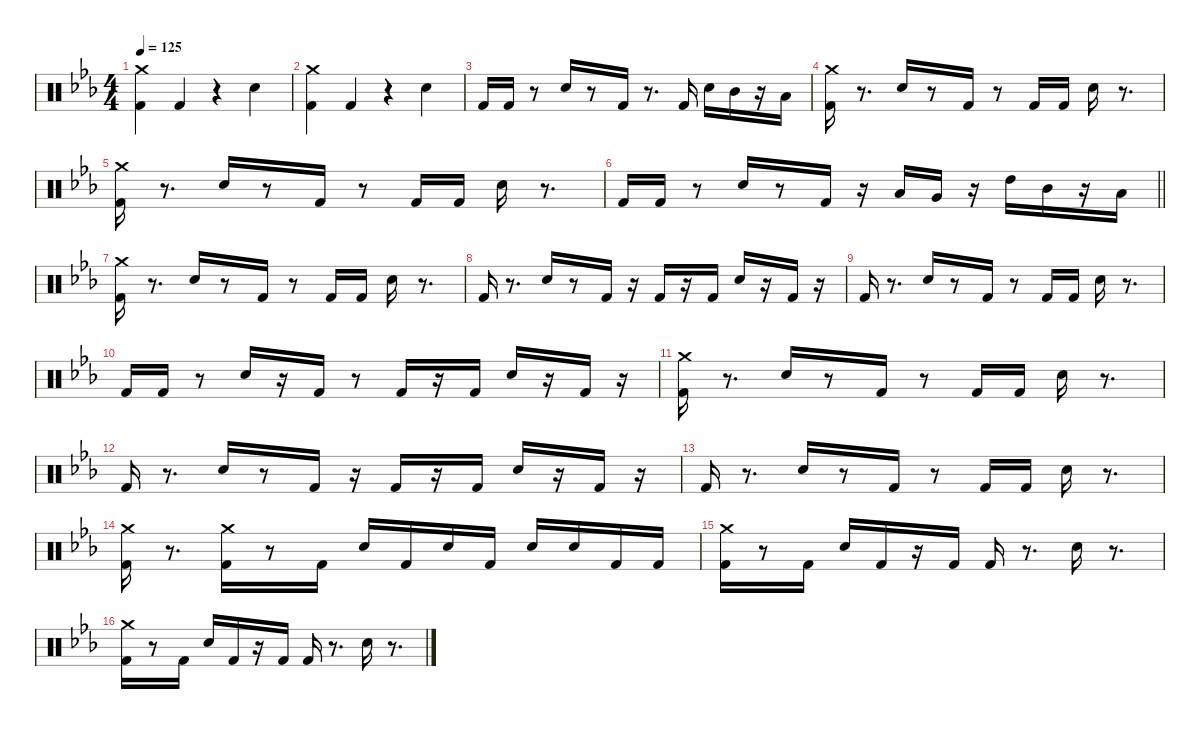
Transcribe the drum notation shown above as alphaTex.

\defaultSystemsLayout 4
\hideDynamics
\bracketExtendMode nobrackets
\singleTrackTrackNamePolicy hidden
\multiTrackTrackNamePolicy hidden
\firstSystemTrackNameMode fullname
\firstSystemTrackNameOrientation horizontal
\otherSystemsTrackNameOrientation horizontal
\track ("Batterie" "drm.") {defaultSystemsLayout 4 instrument percussion}
\staff {score}
\articulation defaults
\ts (4 4)
\beaming (8 2 2 2 2)
\tempo 125
\clef neutral
\ks eb
("Crash medium (hit)"{acc forcenatural} "Kick (hit) 2"{acc forcenatural}).4{dy f beam Down} "Kick (hit) 2"{acc forcenatural}.4{beam Up} r.4{beam Up} "Snare (hit) 2"{acc forcenatural}.4{beam Down} |
("Crash medium (hit)"{acc forcenatural} "Kick (hit) 2"{acc forcenatural}).4{beam Down} "Kick (hit) 2"{acc forcenatural}.4{beam Up} r.4{beam Up} "Snare (hit) 2"{acc forcenatural}.4{beam Down} |
"Kick (hit) 2"{acc forcenatural}.16{beam Up} "Kick (hit) 2"{acc forcenatural}.16{beam Up} r.8{beam Up} "Snare (hit) 2"{acc forcenatural}.16{beam Up} r.8{beam Up} "Kick (hit) 2"{acc forcenatural}.16{beam Up} r.8{d beam Up} "Kick (hit) 2"{acc forcenatural}.16{beam Up} "Snare (hit) 2"{acc forcenatural}.16{beam Down} "Mid Tom (hit)"{acc forcenatural}.16{beam Down} r.16{beam Down} "Low Tom (hit)"{acc forcenatural}.16{beam Down} |
("Crash medium (hit)"{acc forcenatural} "Kick (hit) 2"{acc forcenatural}).16{beam Down} r.8{d beam Down} "Snare (hit) 2"{acc forcenatural}.16{beam Up} r.8{beam Up} "Kick (hit) 2"{acc forcenatural}.16{beam Up} r.8{beam Up} "Kick (hit) 2"{acc forcenatural}.16{beam Up} "Kick (hit) 2"{acc forcenatural}.16{beam Up} "Snare (hit) 2"{acc forcenatural}.16{beam Down} r.8{d beam Down} |
("Crash medium (hit)"{acc forcenatural} "Kick (hit) 2"{acc forcenatural}).16{beam Down} r.8{d beam Down} "Snare (hit) 2"{acc forcenatural}.16{beam Up} r.8{beam Up} "Kick (hit) 2"{acc forcenatural}.16{beam Up} r.8{beam Up} "Kick (hit) 2"{acc forcenatural}.16{beam Up} "Kick (hit) 2"{acc forcenatural}.16{beam Up} "Snare (hit) 2"{acc forcenatural}.16{beam Down} r.8{d beam Down} |
\barLineRight lightlight "Kick (hit) 2"{acc forcenatural}.16{beam Up} "Kick (hit) 2"{acc forcenatural}.16{beam Up}
r.8{beam Up} "Snare (hit) 2"{acc forcenatural}.16{beam Up} r.8{beam Up} "Kick (hit) 2"{acc forcenatural}.16{beam Up} r.16{beam Up} "Low Tom (hit)"{acc forcenatural}.16{beam Up} "Very Low Tom (hit)"{acc forcenatural}.16{beam Up} r.16{beam Up} "High Tom (hit)"{acc forcenatural}.16{beam Down} "Mid Tom (hit)"{acc forcenatural}.16{beam Down} r.16{beam Down} "Low Tom (hit)"{acc forcenatural}.16{beam Down} |
("Crash medium (hit)"{acc forcenatural} "Kick (hit) 2"{acc forcenatural}).16{beam Down} r.8{d beam Down} "Snare (hit) 2"{acc forcenatural}.16{beam Up} r.8{beam Up} "Kick (hit) 2"{acc forcenatural}.16{beam Up} r.8{beam Up} "Kick (hit) 2"{acc forcenatural}.16{beam Up} "Kick (hit) 2"{acc forcenatural}.16{beam Up} "Snare (hit) 2"{acc forcenatural}.16{beam Down} r.8{d beam Down} |
"Kick (hit) 2"{acc forcenatural}.16{beam Up} r.8{d beam Up} "Snare (hit) 2"{acc forcenatural}.16{beam Up} r.8{beam Up} "Kick (hit) 2"{acc forcenatural}.16{beam Up} r.16{beam Up} "Kick (hit) 2"{acc forcenatural}.16{beam Up} r.16{beam Up} "Kick (hit) 2"{acc forcenatural}.16{beam Up} "Snare (hit) 2"{acc forcenatural}.16{beam Up} r.16{beam Up} "Kick (hit) 2"{acc forcenatural}.16{beam Up} r.16{beam Up} |
"Kick (hit) 2"{acc forcenatural}.16{beam Up} r.8{d beam Up} "Snare (hit) 2"{acc forcenatural}.16{beam Up} r.8{beam Up} "Kick (hit) 2"{acc forcenatural}.16{beam Up} r.8{beam Up} "Kick (hit) 2"{acc forcenatural}.16{beam Up} "Kick (hit) 2"{acc forcenatural}.16{beam Up} "Snare (hit) 2"{acc forcenatural}.16{beam Down} r.8{d beam Down} |
"Kick (hit) 2"{acc forcenatural}.16{beam Up} "Kick (hit) 2"{acc forcenatural}.16{beam Up} r.8{beam Up} "Snare (hit) 2"{acc forcenatural}.16{beam Up} r.16{beam Up} "Kick (hit) 2"{acc forcenatural}.16{beam Up} r.8{beam Up} "Kick (hit) 2"{acc forcenatural}.16{beam Up} r.16{beam Up} "Kick (hit) 2"{acc forcenatural}.16{beam Up} "Snare (hit) 2"{acc forcenatural}.16{beam Up} r.16{beam Up} "Kick (hit) 2"{acc forcenatural}.16{beam Up} r.16{beam Up} |
("Crash medium (hit)"{acc forcenatural} "Kick (hit) 2"{acc forcenatural}).16{beam Down} r.8{d beam Down} "Snare (hit) 2"{acc forcenatural}.16{beam Up} r.8{beam Up} "Kick (hit) 2"{acc forcenatural}.16{beam Up} r.8{beam Up} "Kick (hit) 2"{acc forcenatural}.16{beam Up} "Kick (hit) 2"{acc forcenatural}.16{beam Up} "Snare (hit) 2"{acc forcenatural}.16{beam Down} r.8{d beam Down} |
"Kick (hit) 2"{acc forcenatural}.16{beam Up} r.8{d beam Up} "Snare (hit) 2"{acc forcenatural}.16{beam Up} r.8{beam Up} "Kick (hit) 2"{acc forcenatural}.16{beam Up} r.16{beam Up} "Kick (hit) 2"{acc forcenatural}.16{beam Up} r.16{beam Up} "Kick (hit) 2"{acc forcenatural}.16{beam Up} "Snare (hit) 2"{acc forcenatural}.16{beam Up} r.16{beam Up} "Kick (hit) 2"{acc forcenatural}.16{beam Up} r.16{beam Up} |
"Kick (hit) 2"{acc forcenatural}.16{beam Up} r.8{d beam Up} "Snare (hit) 2"{acc forcenatural}.16{beam Up} r.8{beam Up} "Kick (hit) 2"{acc forcenatural}.16{beam Up} r.8{beam Up} "Kick (hit) 2"{acc forcenatural}.16{beam Up} "Kick (hit) 2"{acc forcenatural}.16{beam Up} "Snare (hit) 2"{acc forcenatural}.16{beam Down} r.8{d beam Down} |
("Crash medium (hit)"{acc forcenatural} "Kick (hit) 2"{acc forcenatural}).16{beam Down} r.8{d beam Down} ("Crash medium (hit)"{acc forcenatural} "Kick (hit) 2"{acc forcenatural}).16{beam Down} r.8{beam Down} "Kick (hit) 2"{acc forcenatural}.16{beam Down} "Snare (hit) 2"{acc forcenatural}.16{beam Up} "Kick (hit) 2"{acc forcenatural}.16{beam Up} "Snare (hit) 2"{acc forcenatural}.16{beam Up} "Kick (hit) 2"{acc forcenatural}.16{beam Up} "Snare (hit) 2"{acc forcenatural}.16{beam Up} "Snare (hit) 2"{acc forcenatural}.16{beam Up} "Kick (hit) 2"{acc forcenatural}.16{beam Up} "Kick (hit) 2"{acc forcenatural}.16{beam Up} |
("Kick (hit) 2"{acc forcenatural} "Crash medium (hit)"{acc forcenatural}).16{beam Down} r.8{beam Down} "Kick (hit) 2"{acc forcenatural}.16{beam Down} "Snare (hit) 2"{acc forcenatural}.16{beam Up} "Kick (hit) 2"{acc forcenatural}.16{beam Up} r.16{beam Up} "Kick (hit) 2"{acc forcenatural}.16{beam Up} "Kick (hit) 2"{acc forcenatural}.16{beam Up} r.8{d beam Up} "Snare (hit) 2"{acc forcenatural}.16{beam Down} r.8{d beam Down} |
("Kick (hit) 2"{acc forcenatural} "Crash medium (hit)"{acc forcenatural}).16{beam Down} r.8{beam Down} "Kick (hit) 2"{acc forcenatural}.16{beam Down} "Snare (hit) 2"{acc forcenatural}.16{beam Up} "Kick (hit) 2"{acc forcenatural}.16{beam Up} r.16{beam Up} "Kick (hit) 2"{acc forcenatural}.16{beam Up} "Kick (hit) 2"{acc forcenatural}.16{beam Up} r.8{d beam Up} "Snare (hit) 2"{acc forcenatural}.16{beam Down} r.8{d beam Down}
